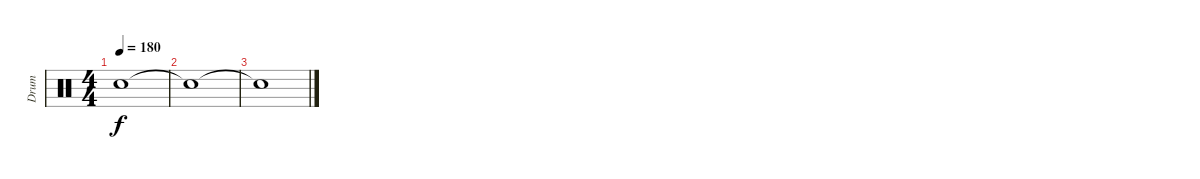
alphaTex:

\track ("Drum" "Drum") {instrument percussion}
\staff {score}
\articulation defaults
\ts (4 4)
\tempo 180
\clef neutral
\ks c "Snare (hit)"{t}.1{dy f}
|
"Snare (hit)"{t}.1 |
"Snare (hit)"{t}.1
